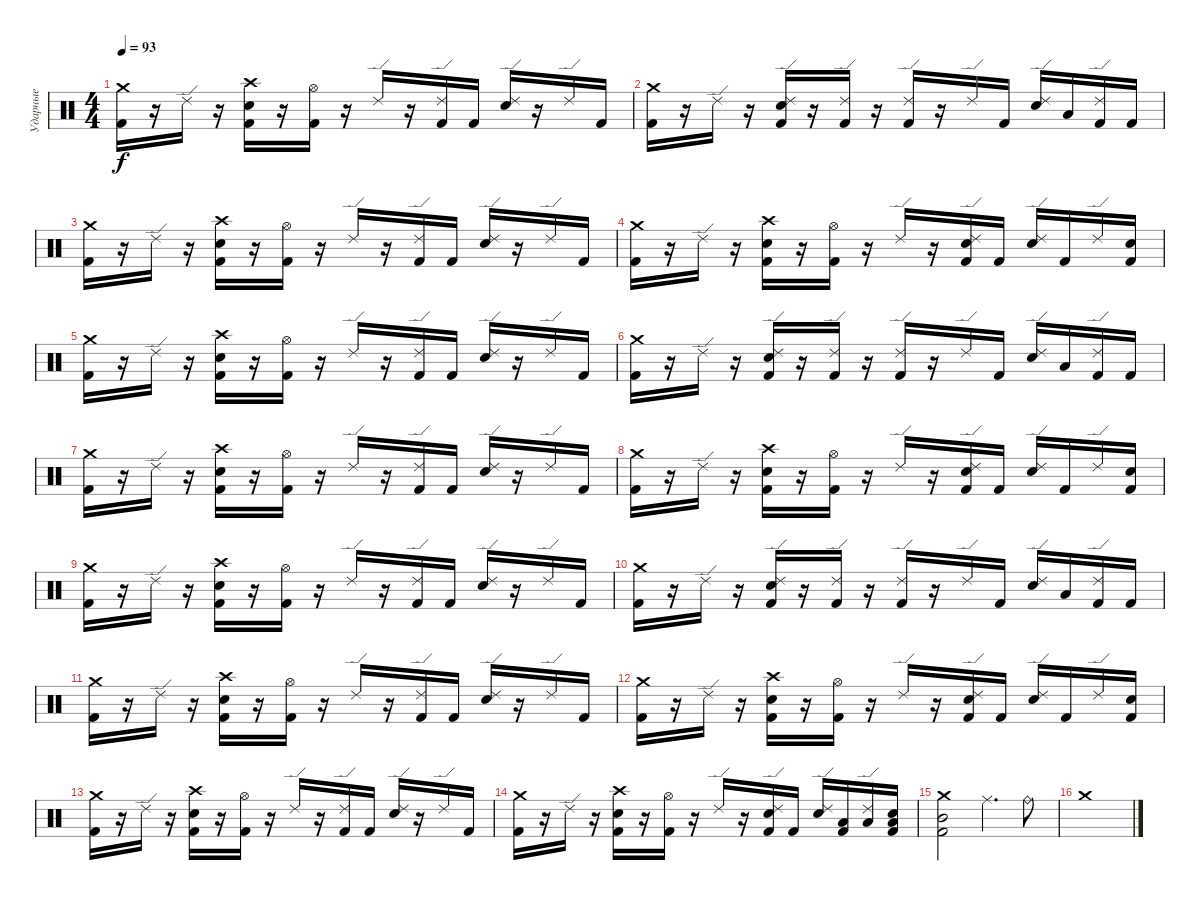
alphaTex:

\track ("Ударные" "Ударные") {instrument percussion}
\staff {score}
\articulation defaults
\ts (4 4)
\tempo 93
\clef neutral
\ks c
("Crash medium (hit)" "Kick (hit) 2").16{dy f volume 16} r.16 "Ride (edge) 2".16 r.16 ("Crash high (hit)" "Electric Snare (hit)" "Kick (hit) 2").16 r.16 ("Hi-Hat (open)" "Kick (hit) 2").16 r.16 "Ride (edge) 2".16 r.16 ("Ride (edge) 2" "Kick (hit) 2").16 "Kick (hit) 2".16 ("Ride (edge) 2" "Electric Snare (hit)").16 r.16 "Ride (edge) 2".16 "Kick (hit) 2".16 |
("Crash medium (hit)" "Kick (hit) 2").16 r.16 "Ride (edge) 2".16 r.16 ("Ride (edge) 2" "Electric Snare (hit)" "Kick (hit) 2").16 r.16 ("Ride (edge) 2" "Kick (hit) 2").16 r.16 ("Ride (edge) 2" "Kick (hit) 2").16 r.16 "Ride (edge) 2".16 "Kick (hit) 2".16 ("Ride (edge) 2" "Electric Snare (hit)").16 "Low Tom (hit)".16 ("Ride (edge) 2" "Kick (hit) 2").16 "Kick (hit) 2".16 |
("Crash medium (hit)" "Kick (hit) 2").16 r.16 "Ride (edge) 2".16 r.16 ("Crash high (hit)" "Electric Snare (hit)" "Kick (hit) 2").16 r.16 ("Hi-Hat (open)" "Kick (hit) 2").16 r.16 "Ride (edge) 2".16 r.16 ("Ride (edge) 2" "Kick (hit) 2").16 "Kick (hit) 2".16 ("Ride (edge) 2" "Electric Snare (hit)").16 r.16 "Ride (edge) 2".16 "Kick (hit) 2".16 |
("Crash medium (hit)" "Kick (hit) 2").16 r.16 "Ride (edge) 2".16 r.16 ("Crash high (hit)" "Electric Snare (hit)" "Kick (hit) 2").16 r.16 ("Hi-Hat (open)" "Kick (hit) 2").16 r.16 "Ride (edge) 2".16 r.16 ("Ride (edge) 2" "Electric Snare (hit)" "Kick (hit) 2").16 "Kick (hit) 2".16 ("Ride (edge) 2" "Electric Snare (hit)").16 "Kick (hit) 2".16 "Ride (edge) 2".16 ("Electric Snare (hit)" "Kick (hit) 2").16 |
("Crash medium (hit)" "Kick (hit) 2").16 r.16 "Ride (edge) 2".16 r.16 ("Crash high (hit)" "Electric Snare (hit)" "Kick (hit) 2").16 r.16 ("Hi-Hat (open)" "Kick (hit) 2").16 r.16 "Ride (edge) 2".16 r.16 ("Ride (edge) 2" "Kick (hit) 2").16 "Kick (hit) 2".16 ("Ride (edge) 2" "Electric Snare (hit)").16 r.16 "Ride (edge) 2".16 "Kick (hit) 2".16 |
("Crash medium (hit)" "Kick (hit) 2").16 r.16 "Ride (edge) 2".16 r.16 ("Ride (edge) 2" "Electric Snare (hit)" "Kick (hit) 2").16 r.16 ("Ride (edge) 2" "Kick (hit) 2").16 r.16 ("Ride (edge) 2" "Kick (hit) 2").16 r.16 "Ride (edge) 2".16 "Kick (hit) 2".16 ("Ride (edge) 2" "Electric Snare (hit)").16 "Low Tom (hit)".16 ("Ride (edge) 2" "Kick (hit) 2").16 "Kick (hit) 2".16 |
("Crash medium (hit)" "Kick (hit) 2").16 r.16 "Ride (edge) 2".16 r.16 ("Crash high (hit)" "Electric Snare (hit)" "Kick (hit) 2").16 r.16 ("Hi-Hat (open)" "Kick (hit) 2").16 r.16 "Ride (edge) 2".16 r.16 ("Ride (edge) 2" "Kick (hit) 2").16 "Kick (hit) 2".16 ("Ride (edge) 2" "Electric Snare (hit)").16 r.16 "Ride (edge) 2".16 "Kick (hit) 2".16 |
("Crash medium (hit)" "Kick (hit) 2").16 r.16 "Ride (edge) 2".16 r.16 ("Crash high (hit)" "Electric Snare (hit)" "Kick (hit) 2").16 r.16 ("Hi-Hat (open)" "Kick (hit) 2").16 r.16 "Ride (edge) 2".16 r.16 ("Ride (edge) 2" "Electric Snare (hit)" "Kick (hit) 2").16 "Kick (hit) 2".16 ("Ride (edge) 2" "Electric Snare (hit)").16 "Kick (hit) 2".16 "Ride (edge) 2".16 ("Electric Snare (hit)" "Kick (hit) 2").16 |
("Crash medium (hit)" "Kick (hit) 2").16 r.16 "Ride (edge) 2".16 r.16 ("Crash high (hit)" "Electric Snare (hit)" "Kick (hit) 2").16 r.16 ("Hi-Hat (open)" "Kick (hit) 2").16 r.16 "Ride (edge) 2".16 r.16 ("Ride (edge) 2" "Kick (hit) 2").16 "Kick (hit) 2".16 ("Ride (edge) 2" "Electric Snare (hit)").16 r.16 "Ride (edge) 2".16 "Kick (hit) 2".16 |
("Crash medium (hit)" "Kick (hit) 2").16 r.16 "Ride (edge) 2".16 r.16 ("Ride (edge) 2" "Electric Snare (hit)" "Kick (hit) 2").16 r.16 ("Ride (edge) 2" "Kick (hit) 2").16 r.16 ("Ride (edge) 2" "Kick (hit) 2").16 r.16 "Ride (edge) 2".16 "Kick (hit) 2".16 ("Ride (edge) 2" "Electric Snare (hit)").16 "Low Tom (hit)".16 ("Ride (edge) 2" "Kick (hit) 2").16 "Kick (hit) 2".16 |
("Crash medium (hit)" "Kick (hit) 2").16 r.16 "Ride (edge) 2".16 r.16 ("Crash high (hit)" "Electric Snare (hit)" "Kick (hit) 2").16 r.16 ("Hi-Hat (open)" "Kick (hit) 2").16 r.16 "Ride (edge) 2".16 r.16 ("Ride (edge) 2" "Kick (hit) 2").16 "Kick (hit) 2".16 ("Ride (edge) 2" "Electric Snare (hit)").16 r.16 "Ride (edge) 2".16 "Kick (hit) 2".16 |
("Crash medium (hit)" "Kick (hit) 2").16 r.16 "Ride (edge) 2".16 r.16 ("Crash high (hit)" "Electric Snare (hit)" "Kick (hit) 2").16 r.16 ("Hi-Hat (open)" "Kick (hit) 2").16 r.16 "Ride (edge) 2".16 r.16 ("Ride (edge) 2" "Electric Snare (hit)" "Kick (hit) 2").16 "Kick (hit) 2".16 ("Ride (edge) 2" "Electric Snare (hit)").16 "Kick (hit) 2".16 "Ride (edge) 2".16 ("Electric Snare (hit)" "Kick (hit) 2").16 |
("Crash medium (hit)" "Kick (hit) 2").16 r.16 "Ride (edge) 2".16 r.16 ("Crash high (hit)" "Electric Snare (hit)" "Kick (hit) 2").16 r.16 ("Hi-Hat (open)" "Kick (hit) 2").16 r.16 "Ride (edge) 2".16 r.16 ("Ride (edge) 2" "Kick (hit) 2").16 "Kick (hit) 2".16 ("Ride (edge) 2" "Electric Snare (hit)").16 r.16 "Ride (edge) 2".16 "Kick (hit) 2".16 |
("Crash medium (hit)" "Kick (hit) 2").16 r.16 "Ride (edge) 2".16 r.16 ("Crash high (hit)" "Electric Snare (hit)" "Kick (hit) 2").16 r.16 ("Hi-Hat (open)" "Kick (hit) 2").16 r.16 "Ride (edge) 2".16 r.16 ("Ride (edge) 2" "Electric Snare (hit)" "Kick (hit) 2").16 "Kick (hit) 2".16 ("Ride (edge) 2" "Electric Snare (hit)").16 ("Low Floor Tom (hit)" "Kick (hit) 2").16 ("Ride (edge) 2" "Low Tom (hit)").16 ("Electric Snare (hit)" "Low Tom (hit)" "Kick (hit) 2").16 |
("Crash medium (hit)" "Mid Tom (hit)" "Kick (hit) 2").2 "Ride (middle)".4{d} "Ride (bell)".8 |
"Crash medium (hit)".1
